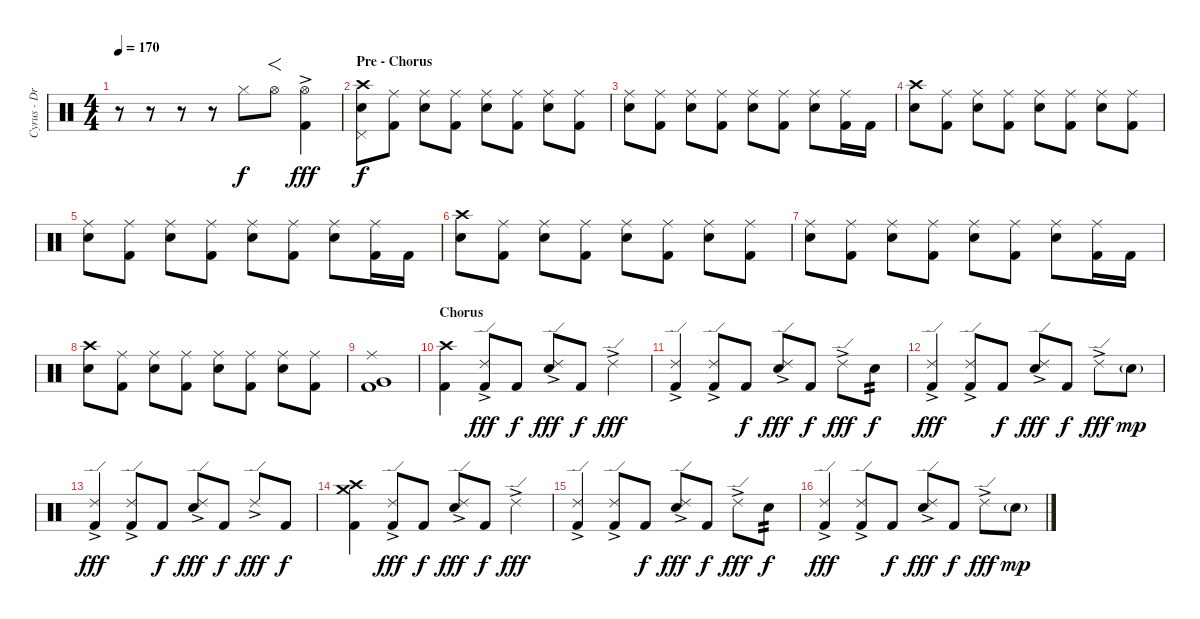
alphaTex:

\track ("Cyrus - Drums" "Cyrus - Dr") {instrument percussion}
\staff {score}
\articulation defaults
\ts (4 4)
\tempo 170
\clef neutral
\ks c
r.8{dy f} r.8 r.8 r.8 "Hi-Hat (closed)".8 "Hi-Hat (open)".8{f} ("Hi-Hat (open)"{ac} "Kick (hit) 2").4{dy fff} |
\section ("" "Pre - Chorus")
("Crash high (hit)" "Pedal Hi-Hat (hit)" "Electric Snare (hit)").8{dy f} ("Ride (middle)" "Kick (hit) 2").8 ("Ride (middle)" "Electric Snare (hit)").8 ("Ride (middle)" "Kick (hit) 2").8 ("Ride (middle)" "Electric Snare (hit)").8 ("Ride (middle)" "Kick (hit) 2").8 ("Ride (middle)" "Electric Snare (hit)").8 ("Ride (middle)" "Kick (hit) 2").8 |
("Ride (middle)" "Electric Snare (hit)").8 ("Ride (middle)" "Kick (hit) 2").8 ("Ride (middle)" "Electric Snare (hit)").8 ("Ride (middle)" "Kick (hit) 2").8 ("Ride (middle)" "Electric Snare (hit)").8 ("Ride (middle)" "Kick (hit) 2").8 ("Ride (middle)" "Electric Snare (hit)").8 ("Ride (middle)" "Kick (hit) 2").16 "Kick (hit) 2".16 |
("Crash high (hit)" "Electric Snare (hit)").8 ("Ride (middle)" "Kick (hit) 2").8 ("Ride (middle)" "Electric Snare (hit)").8 ("Ride (middle)" "Kick (hit) 2").8 ("Ride (middle)" "Electric Snare (hit)").8 ("Ride (middle)" "Kick (hit) 2").8 ("Ride (middle)" "Electric Snare (hit)").8 ("Ride (middle)" "Kick (hit) 2").8 |
("Ride (middle)" "Electric Snare (hit)").8 ("Ride (middle)" "Kick (hit) 2").8 ("Ride (middle)" "Electric Snare (hit)").8 ("Ride (middle)" "Kick (hit) 2").8 ("Ride (middle)" "Electric Snare (hit)").8 ("Ride (middle)" "Kick (hit) 2").8 ("Ride (middle)" "Electric Snare (hit)").8 ("Ride (middle)" "Kick (hit) 2").16 "Kick (hit) 2".16 |
("Crash high (hit)" "Electric Snare (hit)").8 ("Ride (middle)" "Kick (hit) 2").8 ("Ride (middle)" "Electric Snare (hit)").8 ("Ride (middle)" "Kick (hit) 2").8 ("Ride (middle)" "Electric Snare (hit)").8 ("Ride (middle)" "Kick (hit) 2").8 ("Ride (middle)" "Electric Snare (hit)").8 ("Ride (middle)" "Kick (hit) 2").8 |
("Ride (middle)" "Electric Snare (hit)").8 ("Ride (middle)" "Kick (hit) 2").8 ("Ride (middle)" "Electric Snare (hit)").8 ("Ride (middle)" "Kick (hit) 2").8 ("Ride (middle)" "Electric Snare (hit)").8 ("Ride (middle)" "Kick (hit) 2").8 ("Ride (middle)" "Electric Snare (hit)").8 ("Ride (middle)" "Kick (hit) 2").16 "Kick (hit) 2".16 |
("Crash high (hit)" "Electric Snare (hit)").8 ("Ride (middle)" "Kick (hit) 2").8 ("Ride (middle)" "Electric Snare (hit)").8 ("Ride (middle)" "Kick (hit) 2").8 ("Ride (middle)" "Electric Snare (hit)").8 ("Ride (middle)" "Kick (hit) 2").8 ("Ride (middle)" "Electric Snare (hit)").8 ("Ride (middle)" "Kick (hit) 2").8 |
("Ride (middle)" "Very Low Tom (hit)" "Kick (hit) 2").1 |
\section ("" "Chorus")
("Crash high (hit)" "Kick (hit) 2").4 ("Ride (edge) 2"{ac} "Kick (hit) 2").8{dy fff} "Kick (hit) 2".8{dy f} ("Ride (edge) 2"{ac} "Electric Snare (hit)").8{dy fff} "Kick (hit) 2".8{dy f} "Ride (edge) 2"{ac}.4{dy fff} |
("Ride (edge) 2"{ac} "Kick (hit) 2").4 ("Ride (edge) 2"{ac} "Kick (hit) 2").8 "Kick (hit) 2".8{dy f} ("Ride (edge) 2"{ac} "Electric Snare (hit)").8{dy fff} "Kick (hit) 2".8{dy f} "Ride (edge) 2"{ac}.8{dy fff} "Electric Snare (hit)".8{tp 2 dy f} |
("Ride (edge) 2"{ac} "Kick (hit) 2").4{dy fff} ("Ride (edge) 2"{ac} "Kick (hit) 2").8 "Kick (hit) 2".8{dy f} ("Ride (edge) 2"{ac} "Electric Snare (hit)").8{dy fff} "Kick (hit) 2".8{dy f} "Ride (edge) 2"{ac}.8{dy fff} "Electric Snare (hit)"{g}.8{dy mp} |
("Ride (edge) 2"{ac} "Kick (hit) 2").4{dy fff} ("Ride (edge) 2"{ac} "Kick (hit) 2").8 "Kick (hit) 2".8{dy f} ("Ride (edge) 2"{ac} "Electric Snare (hit)").8{dy fff} "Kick (hit) 2".8{dy f} "Ride (edge) 2"{ac}.8{dy fff} "Kick (hit) 2".8{dy f} |
("Crash high (hit)" "Crash medium (hit)" "Kick (hit) 2").4 ("Ride (edge) 2"{ac} "Kick (hit) 2").8{dy fff} "Kick (hit) 2".8{dy f} ("Ride (edge) 2"{ac} "Electric Snare (hit)").8{dy fff} "Kick (hit) 2".8{dy f} "Ride (edge) 2"{ac}.4{dy fff} |
("Ride (edge) 2"{ac} "Kick (hit) 2").4 ("Ride (edge) 2"{ac} "Kick (hit) 2").8 "Kick (hit) 2".8{dy f} ("Ride (edge) 2"{ac} "Electric Snare (hit)").8{dy fff} "Kick (hit) 2".8{dy f} "Ride (edge) 2"{ac}.8{dy fff} "Electric Snare (hit)".8{tp 2 dy f} |
("Ride (edge) 2"{ac} "Kick (hit) 2").4{dy fff} ("Ride (edge) 2"{ac} "Kick (hit) 2").8 "Kick (hit) 2".8{dy f} ("Ride (edge) 2"{ac} "Electric Snare (hit)").8{dy fff} "Kick (hit) 2".8{dy f} "Ride (edge) 2"{ac}.8{dy fff} "Electric Snare (hit)"{g}.8{dy mp}
